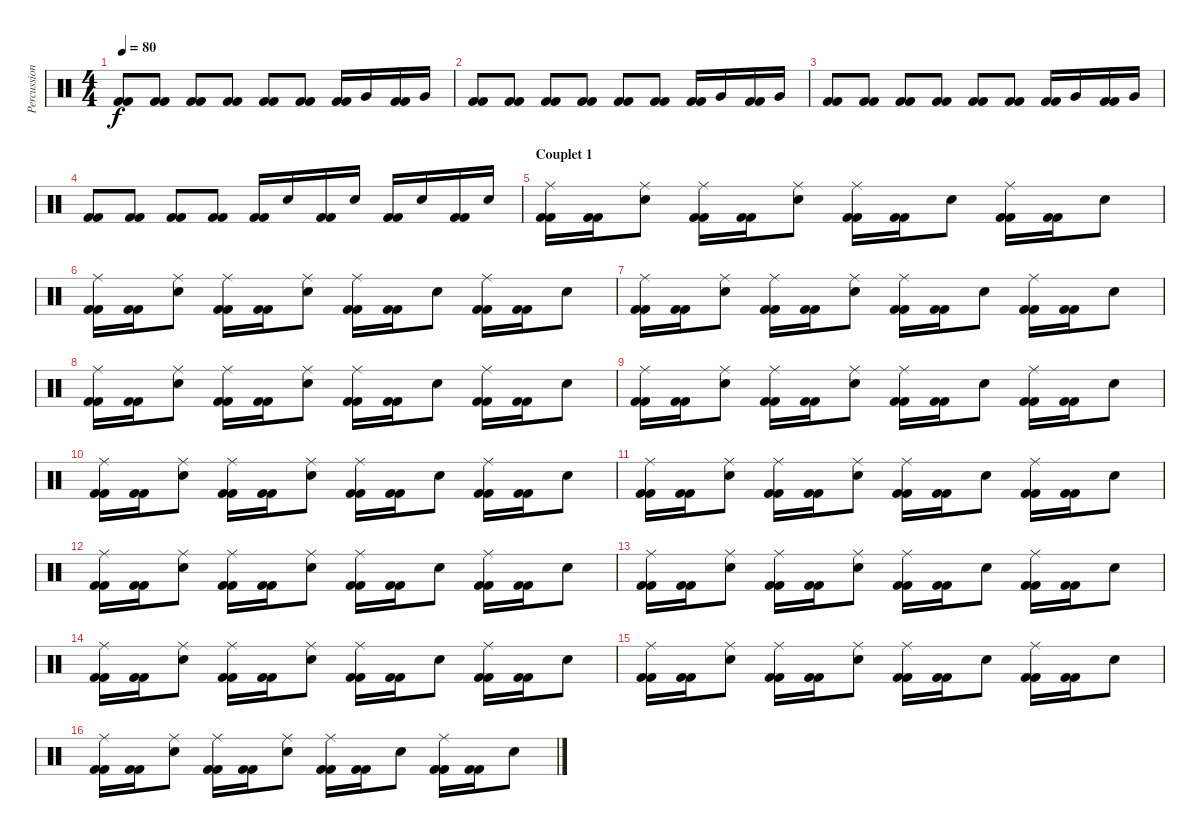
\track ("Percussions" "Percussion") {instrument percussion}
\staff {score}
\articulation defaults
\ts (4 4)
\tempo 80
\clef neutral
\ks c
("Kick (hit) 2" "Kick (hit) 2").8{dy f} ("Kick (hit) 2" "Kick (hit) 2").8 ("Kick (hit) 2" "Kick (hit) 2").8 ("Kick (hit) 2" "Kick (hit) 2").8 ("Kick (hit) 2" "Kick (hit) 2").8 ("Kick (hit) 2" "Kick (hit) 2").8 ("Kick (hit) 2" "Kick (hit) 2").16 "Very Low Tom (hit)".16 ("Kick (hit) 2" "Kick (hit) 2").16 "Very Low Tom (hit)".16 |
("Kick (hit) 2" "Kick (hit) 2").8 ("Kick (hit) 2" "Kick (hit) 2").8 ("Kick (hit) 2" "Kick (hit) 2").8 ("Kick (hit) 2" "Kick (hit) 2").8 ("Kick (hit) 2" "Kick (hit) 2").8 ("Kick (hit) 2" "Kick (hit) 2").8 ("Kick (hit) 2" "Kick (hit) 2").16 "Very Low Tom (hit)".16 ("Kick (hit) 2" "Kick (hit) 2").16 "Very Low Tom (hit)".16 |
("Kick (hit) 2" "Kick (hit) 2").8 ("Kick (hit) 2" "Kick (hit) 2").8 ("Kick (hit) 2" "Kick (hit) 2").8 ("Kick (hit) 2" "Kick (hit) 2").8 ("Kick (hit) 2" "Kick (hit) 2").8 ("Kick (hit) 2" "Kick (hit) 2").8 ("Kick (hit) 2" "Kick (hit) 2").16 "Very Low Tom (hit)".16 ("Kick (hit) 2" "Kick (hit) 2").16 "Very Low Tom (hit)".16 |
("Kick (hit) 2" "Kick (hit) 2").8 ("Kick (hit) 2" "Kick (hit) 2").8 ("Kick (hit) 2" "Kick (hit) 2").8 ("Kick (hit) 2" "Kick (hit) 2").8 ("Kick (hit) 2" "Kick (hit) 2").16 "Snare (hit) 2".16 ("Kick (hit) 2" "Kick (hit) 2").16 "Snare (hit) 2".16 ("Kick (hit) 2" "Kick (hit) 2").16 "Snare (hit) 2".16 ("Kick (hit) 2" "Kick (hit) 2").16 "Snare (hit) 2".16 |
\section ("" "Couplet 1")
("Kick (hit) 2" "Kick (hit) 2" "Ride (middle)").16 ("Kick (hit) 2" "Kick (hit) 2").16 ("Snare (hit) 2" "Ride (middle)").8 ("Kick (hit) 2" "Kick (hit) 2" "Ride (middle)").16 ("Kick (hit) 2" "Kick (hit) 2").16 ("Snare (hit) 2" "Ride (middle)").8 ("Kick (hit) 2" "Kick (hit) 2" "Ride (middle)").16 ("Kick (hit) 2" "Kick (hit) 2").16 "Snare (hit) 2".8 ("Kick (hit) 2" "Kick (hit) 2" "Ride (middle)").16 ("Kick (hit) 2" "Kick (hit) 2").16 "Snare (hit) 2".8 |
("Kick (hit) 2" "Kick (hit) 2" "Ride (middle)").16 ("Kick (hit) 2" "Kick (hit) 2").16 ("Snare (hit) 2" "Ride (middle)").8 ("Kick (hit) 2" "Kick (hit) 2" "Ride (middle)").16 ("Kick (hit) 2" "Kick (hit) 2").16 ("Snare (hit) 2" "Ride (middle)").8 ("Kick (hit) 2" "Kick (hit) 2" "Ride (middle)").16 ("Kick (hit) 2" "Kick (hit) 2").16 "Snare (hit) 2".8 ("Kick (hit) 2" "Kick (hit) 2" "Ride (middle)").16 ("Kick (hit) 2" "Kick (hit) 2").16 "Snare (hit) 2".8 |
("Kick (hit) 2" "Kick (hit) 2" "Ride (middle)").16 ("Kick (hit) 2" "Kick (hit) 2").16 ("Snare (hit) 2" "Ride (middle)").8 ("Kick (hit) 2" "Kick (hit) 2" "Ride (middle)").16 ("Kick (hit) 2" "Kick (hit) 2").16 ("Snare (hit) 2" "Ride (middle)").8 ("Kick (hit) 2" "Kick (hit) 2" "Ride (middle)").16 ("Kick (hit) 2" "Kick (hit) 2").16 "Snare (hit) 2".8 ("Kick (hit) 2" "Kick (hit) 2" "Ride (middle)").16 ("Kick (hit) 2" "Kick (hit) 2").16 "Snare (hit) 2".8 |
("Kick (hit) 2" "Kick (hit) 2" "Ride (middle)").16 ("Kick (hit) 2" "Kick (hit) 2").16 ("Snare (hit) 2" "Ride (middle)").8 ("Kick (hit) 2" "Kick (hit) 2" "Ride (middle)").16 ("Kick (hit) 2" "Kick (hit) 2").16 ("Snare (hit) 2" "Ride (middle)").8 ("Kick (hit) 2" "Kick (hit) 2" "Ride (middle)").16 ("Kick (hit) 2" "Kick (hit) 2").16 "Snare (hit) 2".8 ("Kick (hit) 2" "Kick (hit) 2" "Ride (middle)").16 ("Kick (hit) 2" "Kick (hit) 2").16 "Snare (hit) 2".8 |
("Kick (hit) 2" "Kick (hit) 2" "Ride (middle)").16 ("Kick (hit) 2" "Kick (hit) 2").16 ("Snare (hit) 2" "Ride (middle)").8 ("Kick (hit) 2" "Kick (hit) 2" "Ride (middle)").16 ("Kick (hit) 2" "Kick (hit) 2").16 ("Snare (hit) 2" "Ride (middle)").8 ("Kick (hit) 2" "Kick (hit) 2" "Ride (middle)").16 ("Kick (hit) 2" "Kick (hit) 2").16 "Snare (hit) 2".8 ("Kick (hit) 2" "Kick (hit) 2" "Ride (middle)").16 ("Kick (hit) 2" "Kick (hit) 2").16 "Snare (hit) 2".8 |
("Kick (hit) 2" "Kick (hit) 2" "Ride (middle)").16 ("Kick (hit) 2" "Kick (hit) 2").16 ("Snare (hit) 2" "Ride (middle)").8 ("Kick (hit) 2" "Kick (hit) 2" "Ride (middle)").16 ("Kick (hit) 2" "Kick (hit) 2").16 ("Snare (hit) 2" "Ride (middle)").8 ("Kick (hit) 2" "Kick (hit) 2" "Ride (middle)").16 ("Kick (hit) 2" "Kick (hit) 2").16 "Snare (hit) 2".8 ("Kick (hit) 2" "Kick (hit) 2" "Ride (middle)").16 ("Kick (hit) 2" "Kick (hit) 2").16 "Snare (hit) 2".8 |
("Kick (hit) 2" "Kick (hit) 2" "Ride (middle)").16 ("Kick (hit) 2" "Kick (hit) 2").16 ("Snare (hit) 2" "Ride (middle)").8 ("Kick (hit) 2" "Kick (hit) 2" "Ride (middle)").16 ("Kick (hit) 2" "Kick (hit) 2").16 ("Snare (hit) 2" "Ride (middle)").8 ("Kick (hit) 2" "Kick (hit) 2" "Ride (middle)").16 ("Kick (hit) 2" "Kick (hit) 2").16 "Snare (hit) 2".8 ("Kick (hit) 2" "Kick (hit) 2" "Ride (middle)").16 ("Kick (hit) 2" "Kick (hit) 2").16 "Snare (hit) 2".8 |
("Kick (hit) 2" "Kick (hit) 2" "Ride (middle)").16 ("Kick (hit) 2" "Kick (hit) 2").16 ("Snare (hit) 2" "Ride (middle)").8 ("Kick (hit) 2" "Kick (hit) 2" "Ride (middle)").16 ("Kick (hit) 2" "Kick (hit) 2").16 ("Snare (hit) 2" "Ride (middle)").8 ("Kick (hit) 2" "Kick (hit) 2" "Ride (middle)").16 ("Kick (hit) 2" "Kick (hit) 2").16 "Snare (hit) 2".8 ("Kick (hit) 2" "Kick (hit) 2" "Ride (middle)").16 ("Kick (hit) 2" "Kick (hit) 2").16 "Snare (hit) 2".8 |
("Kick (hit) 2" "Kick (hit) 2" "Ride (middle)").16 ("Kick (hit) 2" "Kick (hit) 2").16 ("Snare (hit) 2" "Ride (middle)").8 ("Kick (hit) 2" "Kick (hit) 2" "Ride (middle)").16 ("Kick (hit) 2" "Kick (hit) 2").16 ("Snare (hit) 2" "Ride (middle)").8 ("Kick (hit) 2" "Kick (hit) 2" "Ride (middle)").16 ("Kick (hit) 2" "Kick (hit) 2").16 "Snare (hit) 2".8 ("Kick (hit) 2" "Kick (hit) 2" "Ride (middle)").16 ("Kick (hit) 2" "Kick (hit) 2").16 "Snare (hit) 2".8 |
("Kick (hit) 2" "Kick (hit) 2" "Ride (middle)").16 ("Kick (hit) 2" "Kick (hit) 2").16 ("Snare (hit) 2" "Ride (middle)").8 ("Kick (hit) 2" "Kick (hit) 2" "Ride (middle)").16 ("Kick (hit) 2" "Kick (hit) 2").16 ("Snare (hit) 2" "Ride (middle)").8 ("Kick (hit) 2" "Kick (hit) 2" "Ride (middle)").16 ("Kick (hit) 2" "Kick (hit) 2").16 "Snare (hit) 2".8 ("Kick (hit) 2" "Kick (hit) 2" "Ride (middle)").16 ("Kick (hit) 2" "Kick (hit) 2").16 "Snare (hit) 2".8 |
("Kick (hit) 2" "Kick (hit) 2" "Ride (middle)").16 ("Kick (hit) 2" "Kick (hit) 2").16 ("Snare (hit) 2" "Ride (middle)").8 ("Kick (hit) 2" "Kick (hit) 2" "Ride (middle)").16 ("Kick (hit) 2" "Kick (hit) 2").16 ("Snare (hit) 2" "Ride (middle)").8 ("Kick (hit) 2" "Kick (hit) 2" "Ride (middle)").16 ("Kick (hit) 2" "Kick (hit) 2").16 "Snare (hit) 2".8 ("Kick (hit) 2" "Kick (hit) 2" "Ride (middle)").16 ("Kick (hit) 2" "Kick (hit) 2").16 "Snare (hit) 2".8 |
("Kick (hit) 2" "Kick (hit) 2" "Ride (middle)").16 ("Kick (hit) 2" "Kick (hit) 2").16 ("Snare (hit) 2" "Ride (middle)").8 ("Kick (hit) 2" "Kick (hit) 2" "Ride (middle)").16 ("Kick (hit) 2" "Kick (hit) 2").16 ("Snare (hit) 2" "Ride (middle)").8 ("Kick (hit) 2" "Kick (hit) 2" "Ride (middle)").16 ("Kick (hit) 2" "Kick (hit) 2").16 "Snare (hit) 2".8 ("Kick (hit) 2" "Kick (hit) 2" "Ride (middle)").16 ("Kick (hit) 2" "Kick (hit) 2").16 "Snare (hit) 2".8
